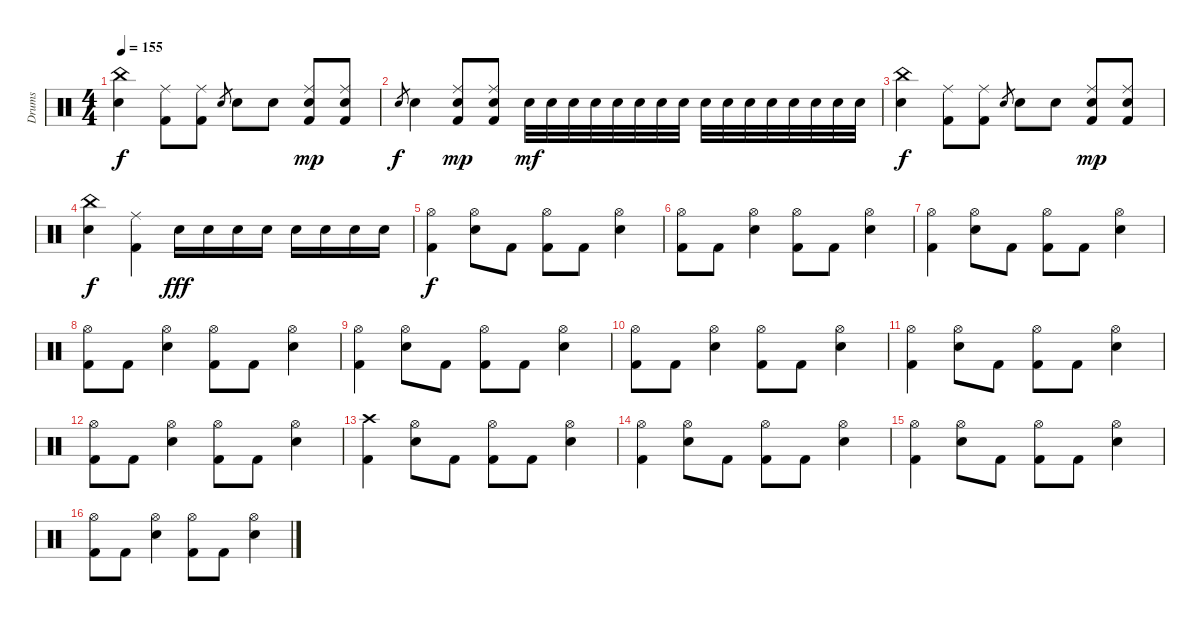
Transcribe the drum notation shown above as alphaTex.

\track ("Drums" "Drums") {instrument percussion}
\staff {score}
\articulation defaults
\ts (4 4)
\tempo 155
\clef neutral
\ks c
("China (hit)" "Snare (hit) 2").4{dy f} ("Ride (middle)" "Kick (hit) 2").8 ("Ride (middle)" "Kick (hit) 2").8 "Snare (hit) 2".8{gr} "Snare (hit) 2".8 "Snare (hit) 2".8 ("Ride (middle)" "Snare (hit) 2" "Kick (hit) 2").8{dy mp} ("Ride (middle)" "Snare (hit) 2" "Kick (hit) 2").8 |
"Snare (hit) 2".8{gr dy f} "Snare (hit) 2".4 ("Ride (middle)" "Snare (hit) 2" "Kick (hit) 2").8{dy mp} ("Ride (middle)" "Snare (hit) 2" "Kick (hit) 2").8 "Snare (hit) 2".32{dy mf} "Snare (hit) 2".32 "Snare (hit) 2".32 "Snare (hit) 2".32 "Snare (hit) 2".32 "Snare (hit) 2".32 "Snare (hit) 2".32 "Snare (hit) 2".32 "Snare (hit) 2".32 "Snare (hit) 2".32 "Snare (hit) 2".32 "Snare (hit) 2".32 "Snare (hit) 2".32 "Snare (hit) 2".32 "Snare (hit) 2".32 "Snare (hit) 2".32 |
("China (hit)" "Snare (hit) 2").4{dy f} ("Ride (middle)" "Kick (hit) 2").8 ("Ride (middle)" "Kick (hit) 2").8 "Snare (hit) 2".8{gr} "Snare (hit) 2".8 "Snare (hit) 2".8 ("Ride (middle)" "Snare (hit) 2" "Kick (hit) 2").8{dy mp} ("Ride (middle)" "Snare (hit) 2" "Kick (hit) 2").8 |
("China (hit)" "Snare (hit) 2").4{dy f} ("Ride (middle)" "Kick (hit) 2").4 "Snare (hit) 2".16{dy fff volume 16} "Snare (hit) 2".16 "Snare (hit) 2".16 "Snare (hit) 2".16 "Snare (hit) 2".16 "Snare (hit) 2".16 "Snare (hit) 2".16 "Snare (hit) 2".16 |
("Hi-Hat (open)" "Kick (hit) 2").4{dy f volume 13} ("Hi-Hat (open)" "Snare (hit) 2").8 "Kick (hit) 2".8 ("Hi-Hat (open)" "Kick (hit) 2").8 "Kick (hit) 2".8 ("Hi-Hat (open)" "Snare (hit) 2").4 |
("Hi-Hat (open)" "Kick (hit) 2").8 "Kick (hit) 2".8 ("Hi-Hat (open)" "Snare (hit) 2").4 ("Hi-Hat (open)" "Kick (hit) 2").8 "Kick (hit) 2".8 ("Hi-Hat (open)" "Snare (hit) 2").4 |
("Hi-Hat (open)" "Kick (hit) 2").4 ("Hi-Hat (open)" "Snare (hit) 2").8 "Kick (hit) 2".8 ("Hi-Hat (open)" "Kick (hit) 2").8 "Kick (hit) 2".8 ("Hi-Hat (open)" "Snare (hit) 2").4 |
("Hi-Hat (open)" "Kick (hit) 2").8 "Kick (hit) 2".8 ("Hi-Hat (open)" "Snare (hit) 2").4 ("Hi-Hat (open)" "Kick (hit) 2").8 "Kick (hit) 2".8 ("Hi-Hat (open)" "Snare (hit) 2").4 |
("Hi-Hat (open)" "Kick (hit) 2").4 ("Hi-Hat (open)" "Snare (hit) 2").8 "Kick (hit) 2".8 ("Hi-Hat (open)" "Kick (hit) 2").8 "Kick (hit) 2".8 ("Hi-Hat (open)" "Snare (hit) 2").4 |
("Hi-Hat (open)" "Kick (hit) 2").8 "Kick (hit) 2".8 ("Hi-Hat (open)" "Snare (hit) 2").4 ("Hi-Hat (open)" "Kick (hit) 2").8 "Kick (hit) 2".8 ("Hi-Hat (open)" "Snare (hit) 2").4 |
("Hi-Hat (open)" "Kick (hit) 2").4 ("Hi-Hat (open)" "Snare (hit) 2").8 "Kick (hit) 2".8 ("Hi-Hat (open)" "Kick (hit) 2").8 "Kick (hit) 2".8 ("Hi-Hat (open)" "Snare (hit) 2").4 |
("Hi-Hat (open)" "Kick (hit) 2").8 "Kick (hit) 2".8 ("Hi-Hat (open)" "Snare (hit) 2").4 ("Hi-Hat (open)" "Kick (hit) 2").8 "Kick (hit) 2".8 ("Hi-Hat (open)" "Snare (hit) 2").4 |
("Crash high (hit)" "Kick (hit) 2").4 ("Hi-Hat (open)" "Snare (hit) 2").8 "Kick (hit) 2".8 ("Hi-Hat (open)" "Kick (hit) 2").8 "Kick (hit) 2".8 ("Hi-Hat (open)" "Snare (hit) 2").4 |
("Hi-Hat (open)" "Kick (hit) 2").4 ("Hi-Hat (open)" "Snare (hit) 2").8 "Kick (hit) 2".8 ("Hi-Hat (open)" "Kick (hit) 2").8 "Kick (hit) 2".8 ("Hi-Hat (open)" "Snare (hit) 2").4 |
("Hi-Hat (open)" "Kick (hit) 2").4 ("Hi-Hat (open)" "Snare (hit) 2").8 "Kick (hit) 2".8 ("Hi-Hat (open)" "Kick (hit) 2").8 "Kick (hit) 2".8 ("Hi-Hat (open)" "Snare (hit) 2").4 |
("Hi-Hat (open)" "Kick (hit) 2").8 "Kick (hit) 2".8 ("Hi-Hat (open)" "Snare (hit) 2").4 ("Hi-Hat (open)" "Kick (hit) 2").8 "Kick (hit) 2".8 ("Hi-Hat (open)" "Snare (hit) 2").4
